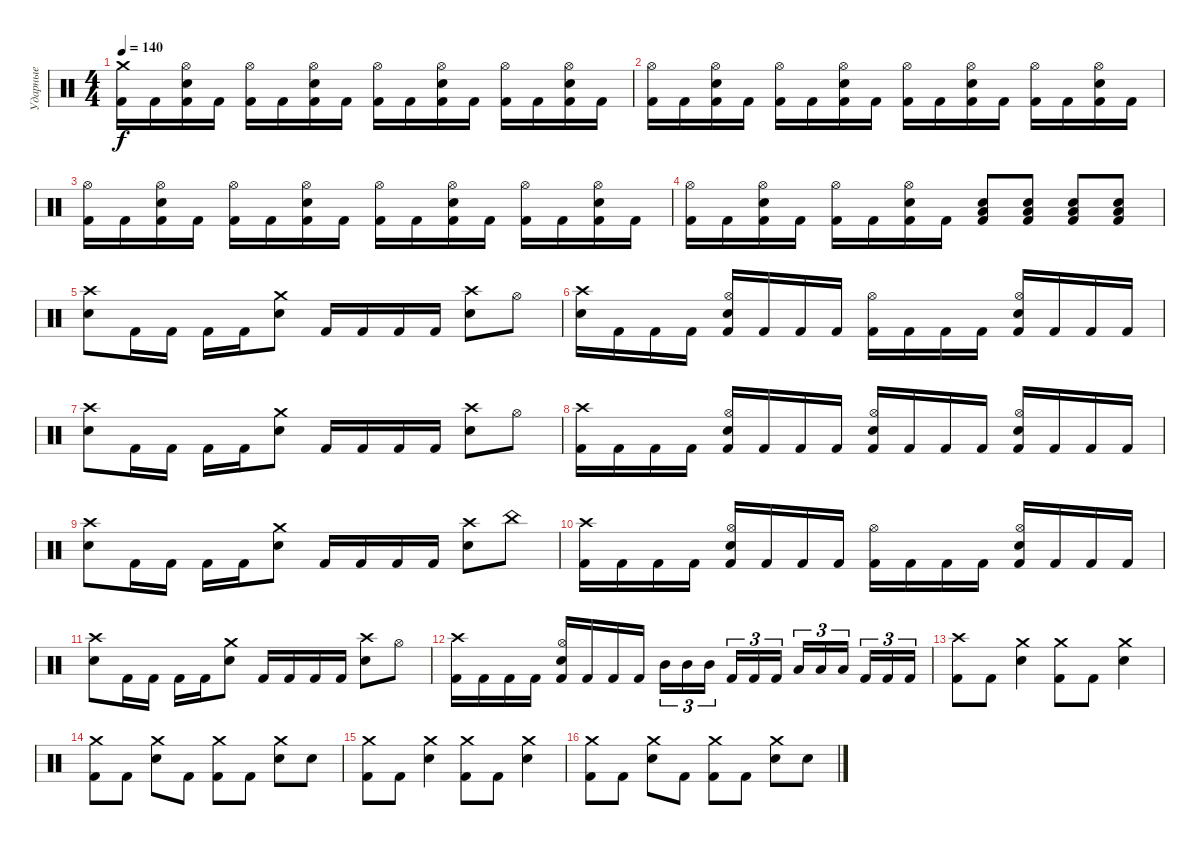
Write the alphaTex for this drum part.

\track ("Ударные" "Ударные") {instrument percussion}
\staff {score}
\articulation defaults
\ts (4 4)
\tempo 140
\clef neutral
\ks c
("Crash medium (hit)" "Kick (hit) 2").16{dy f} "Kick (hit) 2".16 ("Hi-Hat (open)" "Electric Snare (hit)" "Kick (hit) 2").16 "Kick (hit) 2".16 ("Hi-Hat (open)" "Kick (hit) 2").16 "Kick (hit) 2".16 ("Hi-Hat (open)" "Electric Snare (hit)" "Kick (hit) 2").16 "Kick (hit) 2".16 ("Hi-Hat (open)" "Kick (hit) 2").16 "Kick (hit) 2".16 ("Hi-Hat (open)" "Electric Snare (hit)" "Kick (hit) 2").16 "Kick (hit) 2".16 ("Hi-Hat (open)" "Kick (hit) 2").16 "Kick (hit) 2".16 ("Hi-Hat (open)" "Electric Snare (hit)" "Kick (hit) 2").16 "Kick (hit) 2".16 |
("Hi-Hat (open)" "Kick (hit) 2").16 "Kick (hit) 2".16 ("Hi-Hat (open)" "Electric Snare (hit)" "Kick (hit) 2").16 "Kick (hit) 2".16 ("Hi-Hat (open)" "Kick (hit) 2").16 "Kick (hit) 2".16 ("Hi-Hat (open)" "Electric Snare (hit)" "Kick (hit) 2").16 "Kick (hit) 2".16 ("Hi-Hat (open)" "Kick (hit) 2").16 "Kick (hit) 2".16 ("Hi-Hat (open)" "Electric Snare (hit)" "Kick (hit) 2").16 "Kick (hit) 2".16 ("Hi-Hat (open)" "Kick (hit) 2").16 "Kick (hit) 2".16 ("Hi-Hat (open)" "Electric Snare (hit)" "Kick (hit) 2").16 "Kick (hit) 2".16 |
("Hi-Hat (open)" "Kick (hit) 2").16 "Kick (hit) 2".16 ("Hi-Hat (open)" "Electric Snare (hit)" "Kick (hit) 2").16 "Kick (hit) 2".16 ("Hi-Hat (open)" "Kick (hit) 2").16 "Kick (hit) 2".16 ("Hi-Hat (open)" "Electric Snare (hit)" "Kick (hit) 2").16 "Kick (hit) 2".16 ("Hi-Hat (open)" "Kick (hit) 2").16 "Kick (hit) 2".16 ("Hi-Hat (open)" "Electric Snare (hit)" "Kick (hit) 2").16 "Kick (hit) 2".16 ("Hi-Hat (open)" "Kick (hit) 2").16 "Kick (hit) 2".16 ("Hi-Hat (open)" "Electric Snare (hit)" "Kick (hit) 2").16 "Kick (hit) 2".16 |
("Hi-Hat (open)" "Kick (hit) 2").16 "Kick (hit) 2".16 ("Hi-Hat (open)" "Electric Snare (hit)" "Kick (hit) 2").16 "Kick (hit) 2".16 ("Hi-Hat (open)" "Kick (hit) 2").16 "Kick (hit) 2".16 ("Hi-Hat (open)" "Electric Snare (hit)" "Kick (hit) 2").16 "Kick (hit) 2".16 ("Electric Snare (hit)" "Low Tom (hit)" "Kick (hit) 2").8 ("Electric Snare (hit)" "Low Tom (hit)" "Kick (hit) 2").8 ("Electric Snare (hit)" "Low Tom (hit)" "Kick (hit) 2").8 ("Electric Snare (hit)" "Low Tom (hit)" "Kick (hit) 2").8 |
("Electric Snare (hit)" "Crash high (hit)").8 "Kick (hit) 2".16 "Kick (hit) 2".16 "Kick (hit) 2".16 "Kick (hit) 2".16 ("Electric Snare (hit)" "Crash medium (hit)").8 "Kick (hit) 2".16 "Kick (hit) 2".16 "Kick (hit) 2".16 "Kick (hit) 2".16 ("Electric Snare (hit)" "Crash high (hit)").8 "Hi-Hat (open)".8 |
("Electric Snare (hit)" "Crash high (hit)").16 "Kick (hit) 2".16 "Kick (hit) 2".16 "Kick (hit) 2".16 ("Kick (hit) 2" "Electric Snare (hit)" "Hi-Hat (open)").16 "Kick (hit) 2".16 "Kick (hit) 2".16 "Kick (hit) 2".16 ("Kick (hit) 2" "Hi-Hat (open)").16 "Kick (hit) 2".16 "Kick (hit) 2".16 "Kick (hit) 2".16 ("Kick (hit) 2" "Electric Snare (hit)" "Hi-Hat (open)").16 "Kick (hit) 2".16 "Kick (hit) 2".16 "Kick (hit) 2".16 |
("Electric Snare (hit)" "Crash high (hit)").8 "Kick (hit) 2".16 "Kick (hit) 2".16 "Kick (hit) 2".16 "Kick (hit) 2".16 ("Electric Snare (hit)" "Crash medium (hit)").8 "Kick (hit) 2".16 "Kick (hit) 2".16 "Kick (hit) 2".16 "Kick (hit) 2".16 ("Electric Snare (hit)" "Crash high (hit)").8 "Hi-Hat (open)".8 |
("Kick (hit) 2" "Crash high (hit)").16 "Kick (hit) 2".16 "Kick (hit) 2".16 "Kick (hit) 2".16 ("Kick (hit) 2" "Electric Snare (hit)" "Hi-Hat (open)").16 "Kick (hit) 2".16 "Kick (hit) 2".16 "Kick (hit) 2".16 ("Kick (hit) 2" "Electric Snare (hit)" "Hi-Hat (open)").16 "Kick (hit) 2".16 "Kick (hit) 2".16 "Kick (hit) 2".16 ("Kick (hit) 2" "Electric Snare (hit)" "Hi-Hat (open)").16 "Kick (hit) 2".16 "Kick (hit) 2".16 "Kick (hit) 2".16 |
("Electric Snare (hit)" "Crash high (hit)").8 "Kick (hit) 2".16 "Kick (hit) 2".16 "Kick (hit) 2".16 "Kick (hit) 2".16 ("Electric Snare (hit)" "Crash medium (hit)").8 "Kick (hit) 2".16 "Kick (hit) 2".16 "Kick (hit) 2".16 "Kick (hit) 2".16 ("Electric Snare (hit)" "Crash high (hit)").8 "China (hit)".8 |
("Kick (hit) 2" "Crash high (hit)").16 "Kick (hit) 2".16 "Kick (hit) 2".16 "Kick (hit) 2".16 ("Kick (hit) 2" "Electric Snare (hit)" "Hi-Hat (open)").16 "Kick (hit) 2".16 "Kick (hit) 2".16 "Kick (hit) 2".16 ("Kick (hit) 2" "Hi-Hat (open)").16 "Kick (hit) 2".16 "Kick (hit) 2".16 "Kick (hit) 2".16 ("Kick (hit) 2" "Electric Snare (hit)" "Hi-Hat (open)").16 "Kick (hit) 2".16 "Kick (hit) 2".16 "Kick (hit) 2".16 |
("Electric Snare (hit)" "Crash high (hit)").8 "Kick (hit) 2".16 "Kick (hit) 2".16 "Kick (hit) 2".16 "Kick (hit) 2".16 ("Electric Snare (hit)" "Crash medium (hit)").8 "Kick (hit) 2".16 "Kick (hit) 2".16 "Kick (hit) 2".16 "Kick (hit) 2".16 ("Electric Snare (hit)" "Crash high (hit)").8 "Hi-Hat (open)".8 |
("Kick (hit) 2" "Crash high (hit)").16 "Kick (hit) 2".16 "Kick (hit) 2".16 "Kick (hit) 2".16 ("Kick (hit) 2" "Electric Snare (hit)" "Hi-Hat (open)").16 "Kick (hit) 2".16 "Kick (hit) 2".16 "Kick (hit) 2".16 "Mid Tom (hit)".16{tu (3 2)} "Mid Tom (hit)".16{tu (3 2)} "Mid Tom (hit)".16{tu (3 2) beam splitsecondary} "Kick (hit) 2".16{tu (3 2)} "Kick (hit) 2".16{tu (3 2)} "Kick (hit) 2".16{tu (3 2)} "Low Tom (hit)".16{tu (3 2)} "Low Tom (hit)".16{tu (3 2)} "Low Tom (hit)".16{tu (3 2) beam splitsecondary} "Kick (hit) 2".16{tu (3 2)} "Kick (hit) 2".16{tu (3 2)} "Kick (hit) 2".16{tu (3 2)} |
("Crash high (hit)" "Kick (hit) 2").8 "Kick (hit) 2".8 ("Crash medium (hit)" "Electric Snare (hit)").4 ("Crash medium (hit)" "Kick (hit) 2").8 "Kick (hit) 2".8 ("Crash medium (hit)" "Electric Snare (hit)").4 |
("Crash medium (hit)" "Kick (hit) 2").8 "Kick (hit) 2".8 ("Crash medium (hit)" "Electric Snare (hit)").8 "Kick (hit) 2".8 ("Crash medium (hit)" "Kick (hit) 2").8 "Kick (hit) 2".8 ("Crash medium (hit)" "Electric Snare (hit)").8 "Electric Snare (hit)".8 |
("Crash medium (hit)" "Kick (hit) 2").8 "Kick (hit) 2".8 ("Crash medium (hit)" "Electric Snare (hit)").4 ("Crash medium (hit)" "Kick (hit) 2").8 "Kick (hit) 2".8 ("Crash medium (hit)" "Electric Snare (hit)").4 |
("Crash medium (hit)" "Kick (hit) 2").8 "Kick (hit) 2".8 ("Crash medium (hit)" "Electric Snare (hit)").8 "Kick (hit) 2".8 ("Crash medium (hit)" "Kick (hit) 2").8 "Kick (hit) 2".8 ("Crash medium (hit)" "Electric Snare (hit)").8 "Electric Snare (hit)".8
